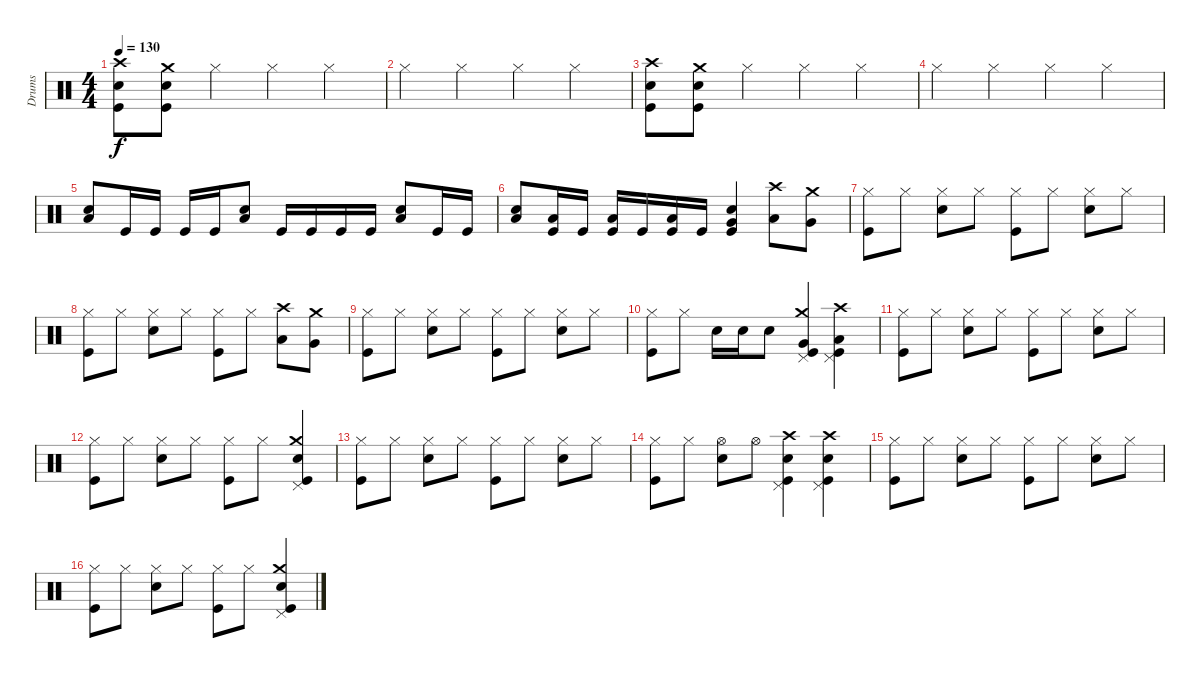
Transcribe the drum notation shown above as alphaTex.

\track ("Drums" "Drums") {instrument percussion}
\staff {score}
\articulation defaults
\ts (4 4)
\tempo 130
\clef neutral
\ks c
("Crash high (hit)" "Electric Snare (hit)" "Kick (hit)").8{dy f} ("Crash medium (hit)" "Electric Snare (hit)" "Kick (hit)").8 "Hi-Hat (closed)".4 "Hi-Hat (closed)".4 "Hi-Hat (closed)".4 |
"Hi-Hat (closed)".4 "Hi-Hat (closed)".4 "Hi-Hat (closed)".4 "Hi-Hat (closed)".4 |
("Crash high (hit)" "Electric Snare (hit)" "Kick (hit)").8 ("Crash medium (hit)" "Electric Snare (hit)" "Kick (hit)").8 "Hi-Hat (closed)".4 "Hi-Hat (closed)".4 "Hi-Hat (closed)".4 |
"Hi-Hat (closed)".4 "Hi-Hat (closed)".4 "Hi-Hat (closed)".4 "Hi-Hat (closed)".4 |
("Electric Snare (hit)" "Low Floor Tom (hit)").8 "Kick (hit)".16 "Kick (hit)".16 "Kick (hit)".16 "Kick (hit)".16 ("Electric Snare (hit)" "Low Floor Tom (hit)").8 "Kick (hit)".16 "Kick (hit)".16 "Kick (hit)".16 "Kick (hit)".16 ("Electric Snare (hit)" "Low Floor Tom (hit)").8 "Kick (hit)".16 "Kick (hit)".16 |
("Electric Snare (hit)" "Low Floor Tom (hit)").8 ("Low Floor Tom (hit)" "Kick (hit)").16 "Kick (hit)".16 ("Low Floor Tom (hit)" "Kick (hit)").16 "Kick (hit)".16 ("Low Floor Tom (hit)" "Kick (hit)").16 "Kick (hit)".16 ("Electric Snare (hit)" "Very Low Tom (hit)" "Kick (hit)").4 ("Crash high (hit)" "Low Floor Tom (hit)").8 ("Crash medium (hit)" "Very Low Tom (hit)").8 |
("Hi-Hat (closed)" "Kick (hit)").8 "Hi-Hat (closed)".8 ("Hi-Hat (closed)" "Electric Snare (hit)").8 "Hi-Hat (closed)".8 ("Hi-Hat (closed)" "Kick (hit)").8 "Hi-Hat (closed)".8 ("Hi-Hat (closed)" "Electric Snare (hit)").8 "Hi-Hat (closed)".8 |
("Hi-Hat (closed)" "Kick (hit)").8 "Hi-Hat (closed)".8 ("Hi-Hat (closed)" "Electric Snare (hit)").8 "Hi-Hat (closed)".8 ("Hi-Hat (closed)" "Kick (hit)").8 "Hi-Hat (closed)".8 ("Crash high (hit)" "Low Floor Tom (hit)").8 ("Crash medium (hit)" "Very Low Tom (hit)").8 |
("Hi-Hat (closed)" "Kick (hit)").8 "Hi-Hat (closed)".8 ("Hi-Hat (closed)" "Electric Snare (hit)").8 "Hi-Hat (closed)".8 ("Hi-Hat (closed)" "Kick (hit)").8 "Hi-Hat (closed)".8 ("Hi-Hat (closed)" "Electric Snare (hit)").8 "Hi-Hat (closed)".8 |
("Hi-Hat (closed)" "Kick (hit)").8 "Hi-Hat (closed)".8 "Electric Snare (hit)".16 "Electric Snare (hit)".16 "Electric Snare (hit)".8 ("Crash medium (hit)" "Pedal Hi-Hat (hit)" "Very Low Tom (hit)" "Kick (hit)").4 ("Crash high (hit)" "Pedal Hi-Hat (hit)" "Low Floor Tom (hit)" "Kick (hit)").4 |
("Hi-Hat (closed)" "Kick (hit)").8 "Hi-Hat (closed)".8 ("Hi-Hat (closed)" "Electric Snare (hit)").8 "Hi-Hat (closed)".8 ("Hi-Hat (closed)" "Kick (hit)").8 "Hi-Hat (closed)".8 ("Hi-Hat (closed)" "Electric Snare (hit)").8 "Hi-Hat (closed)".8 |
("Hi-Hat (closed)" "Kick (hit)").8 "Hi-Hat (closed)".8 ("Hi-Hat (closed)" "Electric Snare (hit)").8 "Hi-Hat (closed)".8 ("Hi-Hat (closed)" "Kick (hit)").8 "Hi-Hat (closed)".8 ("Crash medium (hit)" "Pedal Hi-Hat (hit)" "Electric Snare (hit)" "Kick (hit)").4 |
("Hi-Hat (closed)" "Kick (hit)").8 "Hi-Hat (closed)".8 ("Hi-Hat (closed)" "Electric Snare (hit)").8 "Hi-Hat (closed)".8 ("Hi-Hat (closed)" "Kick (hit)").8 "Hi-Hat (closed)".8 ("Hi-Hat (closed)" "Electric Snare (hit)").8 "Hi-Hat (closed)".8 |
("Hi-Hat (closed)" "Kick (hit)").8 "Hi-Hat (closed)".8 ("Hi-Hat (open)" "Electric Snare (hit)").8 "Hi-Hat (open)".8 ("Crash high (hit)" "Pedal Hi-Hat (hit)" "Electric Snare (hit)" "Kick (hit)").4 ("Crash high (hit)" "Pedal Hi-Hat (hit)" "Electric Snare (hit)" "Kick (hit)").4 |
("Hi-Hat (closed)" "Kick (hit)").8 "Hi-Hat (closed)".8 ("Hi-Hat (closed)" "Electric Snare (hit)").8 "Hi-Hat (closed)".8 ("Hi-Hat (closed)" "Kick (hit)").8 "Hi-Hat (closed)".8 ("Hi-Hat (closed)" "Electric Snare (hit)").8 "Hi-Hat (closed)".8 |
("Hi-Hat (closed)" "Kick (hit)").8 "Hi-Hat (closed)".8 ("Hi-Hat (closed)" "Electric Snare (hit)").8 "Hi-Hat (closed)".8 ("Hi-Hat (closed)" "Kick (hit)").8 "Hi-Hat (closed)".8 ("Crash medium (hit)" "Pedal Hi-Hat (hit)" "Electric Snare (hit)" "Kick (hit)").4
